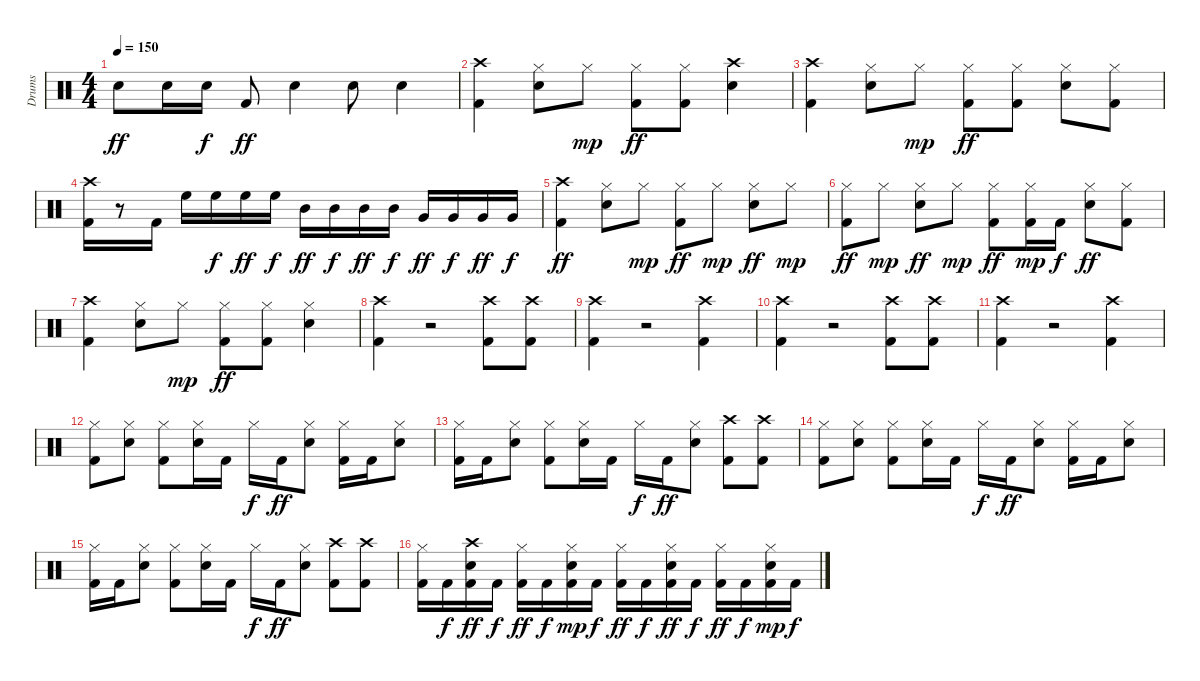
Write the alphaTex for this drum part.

\track ("Drums" "Drums") {instrument percussion}
\staff {score}
\articulation defaults
\ts (4 4)
\tempo 150
\clef neutral
\ks c "Snare (hit) 2".8{dy ff} "Snare (hit) 2".16 "Snare (hit) 2".16{dy f} "Kick (hit) 2".8{dy ff} "Snare (hit) 2".4 "Snare (hit) 2".8 "Snare (hit) 2".4
|
("Crash high (hit)" "Kick (hit) 2").4 ("Hi-Hat (closed)" "Snare (hit) 2").8 "Hi-Hat (closed)".8{dy mp} ("Hi-Hat (closed)" "Kick (hit) 2").8{dy ff} ("Hi-Hat (closed)" "Kick (hit) 2").8 ("Crash high (hit)" "Snare (hit) 2").4 |
("Crash high (hit)" "Kick (hit) 2").4 ("Hi-Hat (closed)" "Snare (hit) 2").8 "Hi-Hat (closed)".8{dy mp} ("Hi-Hat (closed)" "Kick (hit) 2").8{dy ff} ("Hi-Hat (closed)" "Kick (hit) 2").8 ("Hi-Hat (closed)" "Snare (hit) 2").8 ("Hi-Hat (closed)" "Kick (hit) 2").8 |
("Crash high (hit)" "Kick (hit) 2").16 r.8 "Kick (hit) 2".16 "High Floor Tom (hit)".16 "High Floor Tom (hit)".16{dy f} "High Floor Tom (hit)".16{dy ff} "High Floor Tom (hit)".16{dy f} "Mid Tom (hit)".16{dy ff} "Mid Tom (hit)".16{dy f} "Mid Tom (hit)".16{dy ff} "Mid Tom (hit)".16{dy f} "Very Low Tom (hit)".16{dy ff} "Very Low Tom (hit)".16{dy f} "Very Low Tom (hit)".16{dy ff} "Very Low Tom (hit)".16{dy f} |
("Crash high (hit)" "Kick (hit) 2").4{dy ff} ("Hi-Hat (closed)" "Snare (hit) 2").8 "Hi-Hat (closed)".8{dy mp} ("Kick (hit) 2" "Hi-Hat (closed)").8{dy ff} "Hi-Hat (closed)".8{dy mp} ("Hi-Hat (closed)" "Snare (hit) 2").8{dy ff} "Hi-Hat (closed)".8{dy mp} |
("Hi-Hat (closed)" "Kick (hit) 2").8{dy ff} "Hi-Hat (closed)".8{dy mp} ("Hi-Hat (closed)" "Snare (hit) 2").8{dy ff} "Hi-Hat (closed)".8{dy mp} ("Hi-Hat (closed)" "Kick (hit) 2").8{dy ff} ("Kick (hit) 2" "Hi-Hat (closed)").16{dy mp} "Kick (hit) 2".16{dy f} ("Hi-Hat (closed)" "Snare (hit) 2").8{dy ff} ("Hi-Hat (closed)" "Kick (hit) 2").8 |
("Crash high (hit)" "Kick (hit) 2").4 ("Hi-Hat (closed)" "Snare (hit) 2").8 "Hi-Hat (closed)".8{dy mp} ("Hi-Hat (closed)" "Kick (hit) 2").8{dy ff} ("Hi-Hat (closed)" "Kick (hit) 2").8 ("Snare (hit) 2" "Hi-Hat (closed)").4 |
("Crash high (hit)" "Kick (hit) 2").4 r.2 ("Crash high (hit)" "Kick (hit) 2").8 ("Crash high (hit)" "Kick (hit) 2").8 |
("Crash high (hit)" "Kick (hit) 2").4 r.2 ("Crash high (hit)" "Kick (hit) 2").4 |
("Crash high (hit)" "Kick (hit) 2").4 r.2 ("Crash high (hit)" "Kick (hit) 2").8 ("Crash high (hit)" "Kick (hit) 2").8 |
("Crash high (hit)" "Kick (hit) 2").4 r.2 ("Crash high (hit)" "Kick (hit) 2").4 |
("Hi-Hat (closed)" "Kick (hit) 2").8 ("Hi-Hat (closed)" "Snare (hit) 2").8 ("Hi-Hat (closed)" "Kick (hit) 2").8 ("Hi-Hat (closed)" "Snare (hit) 2").16 "Kick (hit) 2".16 "Hi-Hat (closed)".16{dy f} "Kick (hit) 2".16{dy ff} ("Hi-Hat (closed)" "Snare (hit) 2").8 ("Hi-Hat (closed)" "Kick (hit) 2").16 "Kick (hit) 2".16 ("Hi-Hat (closed)" "Snare (hit) 2").8 |
("Hi-Hat (closed)" "Kick (hit) 2").16 "Kick (hit) 2".16 ("Hi-Hat (closed)" "Snare (hit) 2").8 ("Hi-Hat (closed)" "Kick (hit) 2").8 ("Hi-Hat (closed)" "Snare (hit) 2").16 "Kick (hit) 2".16 "Hi-Hat (closed)".16{dy f} "Kick (hit) 2".16{dy ff} ("Hi-Hat (closed)" "Snare (hit) 2").8 ("Crash high (hit)" "Kick (hit) 2").8 ("Crash high (hit)" "Kick (hit) 2").8 |
("Hi-Hat (closed)" "Kick (hit) 2").8 ("Hi-Hat (closed)" "Snare (hit) 2").8 ("Hi-Hat (closed)" "Kick (hit) 2").8 ("Hi-Hat (closed)" "Snare (hit) 2").16 "Kick (hit) 2".16 "Hi-Hat (closed)".16{dy f} "Kick (hit) 2".16{dy ff} ("Hi-Hat (closed)" "Snare (hit) 2").8 ("Hi-Hat (closed)" "Kick (hit) 2").16 "Kick (hit) 2".16 ("Hi-Hat (closed)" "Snare (hit) 2").8 |
("Hi-Hat (closed)" "Kick (hit) 2").16 "Kick (hit) 2".16 ("Hi-Hat (closed)" "Snare (hit) 2").8 ("Hi-Hat (closed)" "Kick (hit) 2").8 ("Hi-Hat (closed)" "Snare (hit) 2").16 "Kick (hit) 2".16 "Hi-Hat (closed)".16{dy f} "Kick (hit) 2".16{dy ff} ("Hi-Hat (closed)" "Snare (hit) 2").8 ("Crash high (hit)" "Kick (hit) 2").8 ("Crash high (hit)" "Kick (hit) 2").8 |
("Kick (hit) 2" "Hi-Hat (closed)").16 "Kick (hit) 2".16{dy f} ("Kick (hit) 2" "Snare (hit) 2" "Crash high (hit)").16{dy ff} "Kick (hit) 2".16{dy f} ("Kick (hit) 2" "Hi-Hat (closed)").16{dy ff} "Kick (hit) 2".16{dy f} ("Kick (hit) 2" "Snare (hit) 2" "Hi-Hat (closed)").16{dy mp} "Kick (hit) 2".16{dy f} ("Kick (hit) 2" "Hi-Hat (closed)").16{dy ff} "Kick (hit) 2".16{dy f} ("Hi-Hat (closed)" "Snare (hit) 2" "Kick (hit) 2").16{dy ff} "Kick (hit) 2".16{dy f} ("Kick (hit) 2" "Hi-Hat (closed)").16{dy ff} "Kick (hit) 2".16{dy f} ("Kick (hit) 2" "Snare (hit) 2" "Hi-Hat (closed)").16{dy mp} "Kick (hit) 2".16{dy f}
